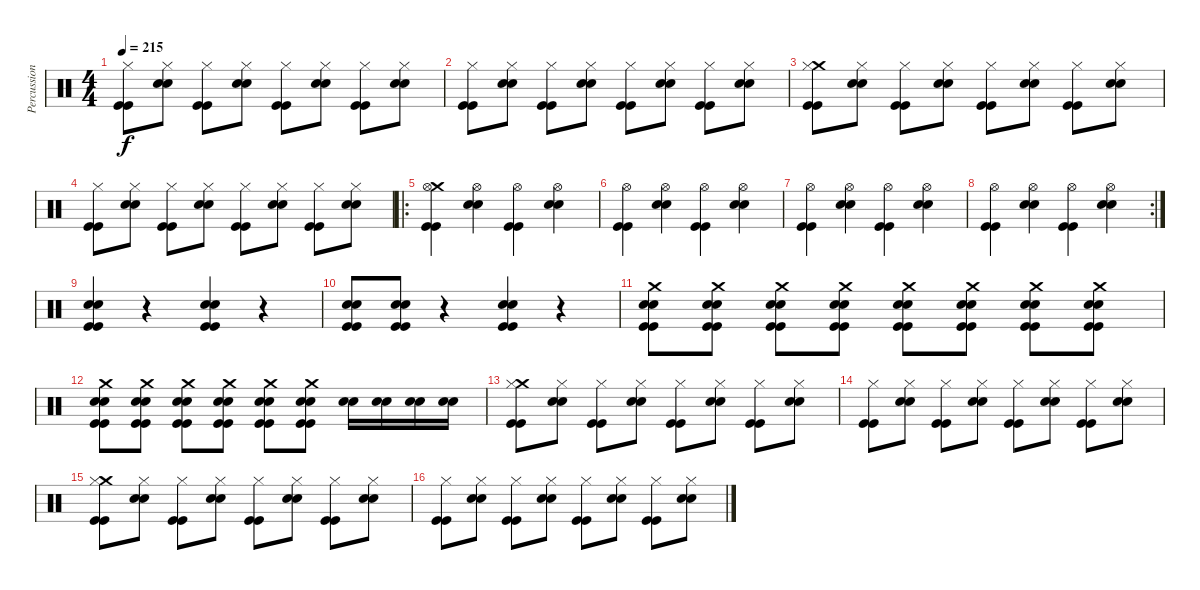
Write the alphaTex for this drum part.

\track ("Percussion" "Percussion") {instrument percussion}
\staff {score}
\articulation defaults
\ts (4 4)
\tempo 215
\clef neutral
\ks c
("Kick (hit)" "Kick (hit)" "Hi-Hat (closed)").8{dy f} ("Snare (hit) 2" "Snare (hit) 2" "Hi-Hat (closed)").8 ("Kick (hit)" "Kick (hit)" "Hi-Hat (closed)").8 ("Snare (hit) 2" "Snare (hit) 2" "Hi-Hat (closed)").8 ("Kick (hit)" "Kick (hit)" "Hi-Hat (closed)").8 ("Snare (hit) 2" "Snare (hit) 2" "Hi-Hat (closed)").8 ("Kick (hit)" "Kick (hit)" "Hi-Hat (closed)").8 ("Snare (hit) 2" "Snare (hit) 2" "Hi-Hat (closed)").8 |
("Kick (hit)" "Kick (hit)" "Hi-Hat (closed)").8 ("Snare (hit) 2" "Snare (hit) 2" "Hi-Hat (closed)").8 ("Kick (hit)" "Kick (hit)" "Hi-Hat (closed)").8 ("Snare (hit) 2" "Snare (hit) 2" "Hi-Hat (closed)").8 ("Kick (hit)" "Kick (hit)" "Hi-Hat (closed)").8 ("Snare (hit) 2" "Snare (hit) 2" "Hi-Hat (closed)").8 ("Kick (hit)" "Kick (hit)" "Hi-Hat (closed)").8 ("Snare (hit) 2" "Snare (hit) 2" "Hi-Hat (closed)").8 |
("Crash medium (hit)" "Kick (hit)" "Kick (hit)" "Hi-Hat (closed)").8 ("Snare (hit) 2" "Snare (hit) 2" "Hi-Hat (closed)").8 ("Kick (hit)" "Kick (hit)" "Hi-Hat (closed)").8 ("Snare (hit) 2" "Snare (hit) 2" "Hi-Hat (closed)").8 ("Kick (hit)" "Kick (hit)" "Hi-Hat (closed)").8 ("Snare (hit) 2" "Snare (hit) 2" "Hi-Hat (closed)").8 ("Kick (hit)" "Kick (hit)" "Hi-Hat (closed)").8 ("Snare (hit) 2" "Snare (hit) 2" "Hi-Hat (closed)").8 |
("Kick (hit)" "Kick (hit)" "Hi-Hat (closed)").8 ("Snare (hit) 2" "Snare (hit) 2" "Hi-Hat (closed)").8 ("Kick (hit)" "Kick (hit)" "Hi-Hat (closed)").8 ("Snare (hit) 2" "Snare (hit) 2" "Hi-Hat (closed)").8 ("Kick (hit)" "Kick (hit)" "Hi-Hat (closed)").8 ("Snare (hit) 2" "Snare (hit) 2" "Hi-Hat (closed)").8 ("Kick (hit)" "Kick (hit)" "Hi-Hat (closed)").8 ("Snare (hit) 2" "Snare (hit) 2" "Hi-Hat (closed)").8 |
\ro
("Crash medium (hit)" "Hi-Hat (open)" "Kick (hit)" "Kick (hit)").4 ("Hi-Hat (open)" "Snare (hit) 2" "Snare (hit) 2").4 ("Hi-Hat (open)" "Kick (hit)" "Kick (hit)").4 ("Hi-Hat (open)" "Snare (hit) 2" "Snare (hit) 2").4 |
("Hi-Hat (open)" "Kick (hit)" "Kick (hit)").4 ("Hi-Hat (open)" "Snare (hit) 2" "Snare (hit) 2").4 ("Hi-Hat (open)" "Kick (hit)" "Kick (hit)").4 ("Hi-Hat (open)" "Snare (hit) 2" "Snare (hit) 2").4 |
("Hi-Hat (open)" "Kick (hit)" "Kick (hit)").4 ("Hi-Hat (open)" "Snare (hit) 2" "Snare (hit) 2").4 ("Hi-Hat (open)" "Kick (hit)" "Kick (hit)").4 ("Hi-Hat (open)" "Snare (hit) 2" "Snare (hit) 2").4 |
\rc 2
("Hi-Hat (open)" "Kick (hit)" "Kick (hit)").4 ("Hi-Hat (open)" "Snare (hit) 2" "Snare (hit) 2").4 ("Hi-Hat (open)" "Kick (hit)" "Kick (hit)").4 ("Hi-Hat (open)" "Snare (hit) 2" "Snare (hit) 2").4 |
("Snare (hit) 2" "Snare (hit) 2" "Kick (hit)" "Kick (hit)").4 r.4 ("Snare (hit) 2" "Snare (hit) 2" "Kick (hit)" "Kick (hit)").4 r.4 |
("Snare (hit) 2" "Snare (hit) 2" "Kick (hit)" "Kick (hit)").8 ("Snare (hit) 2" "Snare (hit) 2" "Kick (hit)" "Kick (hit)").8 r.4 ("Snare (hit) 2" "Snare (hit) 2" "Kick (hit)" "Kick (hit)").4 r.4 |
("Snare (hit) 2" "Snare (hit) 2" "Kick (hit)" "Kick (hit)" "Crash medium (hit)").8 ("Snare (hit) 2" "Snare (hit) 2" "Kick (hit)" "Kick (hit)" "Crash medium (hit)").8 ("Snare (hit) 2" "Snare (hit) 2" "Kick (hit)" "Kick (hit)" "Crash medium (hit)").8 ("Snare (hit) 2" "Snare (hit) 2" "Kick (hit)" "Kick (hit)" "Crash medium (hit)").8 ("Snare (hit) 2" "Snare (hit) 2" "Kick (hit)" "Kick (hit)" "Crash medium (hit)").8 ("Snare (hit) 2" "Snare (hit) 2" "Kick (hit)" "Kick (hit)" "Crash medium (hit)").8 ("Snare (hit) 2" "Snare (hit) 2" "Kick (hit)" "Kick (hit)" "Crash medium (hit)").8 ("Snare (hit) 2" "Snare (hit) 2" "Kick (hit)" "Kick (hit)" "Crash medium (hit)").8 |
("Snare (hit) 2" "Snare (hit) 2" "Kick (hit)" "Kick (hit)" "Crash medium (hit)").8 ("Snare (hit) 2" "Snare (hit) 2" "Kick (hit)" "Kick (hit)" "Crash medium (hit)").8 ("Snare (hit) 2" "Snare (hit) 2" "Kick (hit)" "Kick (hit)" "Crash medium (hit)").8 ("Snare (hit) 2" "Snare (hit) 2" "Kick (hit)" "Kick (hit)" "Crash medium (hit)").8 ("Snare (hit) 2" "Snare (hit) 2" "Kick (hit)" "Kick (hit)" "Crash medium (hit)").8 ("Snare (hit) 2" "Snare (hit) 2" "Kick (hit)" "Kick (hit)" "Crash medium (hit)").8 ("Snare (hit) 2" "Snare (hit) 2").16 ("Snare (hit) 2" "Snare (hit) 2").16 ("Snare (hit) 2" "Snare (hit) 2").16 ("Snare (hit) 2" "Snare (hit) 2").16 |
("Crash medium (hit)" "Kick (hit)" "Kick (hit)" "Hi-Hat (closed)").8 ("Snare (hit) 2" "Snare (hit) 2" "Hi-Hat (closed)").8 ("Kick (hit)" "Kick (hit)" "Hi-Hat (closed)").8 ("Snare (hit) 2" "Snare (hit) 2" "Hi-Hat (closed)").8 ("Kick (hit)" "Kick (hit)" "Hi-Hat (closed)").8 ("Snare (hit) 2" "Snare (hit) 2" "Hi-Hat (closed)").8 ("Kick (hit)" "Kick (hit)" "Hi-Hat (closed)").8 ("Snare (hit) 2" "Snare (hit) 2" "Hi-Hat (closed)").8 |
("Kick (hit)" "Kick (hit)" "Hi-Hat (closed)").8 ("Snare (hit) 2" "Snare (hit) 2" "Hi-Hat (closed)").8 ("Kick (hit)" "Kick (hit)" "Hi-Hat (closed)").8 ("Snare (hit) 2" "Snare (hit) 2" "Hi-Hat (closed)").8 ("Kick (hit)" "Kick (hit)" "Hi-Hat (closed)").8 ("Snare (hit) 2" "Snare (hit) 2" "Hi-Hat (closed)").8 ("Kick (hit)" "Kick (hit)" "Hi-Hat (closed)").8 ("Snare (hit) 2" "Snare (hit) 2" "Hi-Hat (closed)").8 |
("Crash medium (hit)" "Kick (hit)" "Kick (hit)" "Hi-Hat (closed)").8 ("Snare (hit) 2" "Snare (hit) 2" "Hi-Hat (closed)").8 ("Kick (hit)" "Kick (hit)" "Hi-Hat (closed)").8 ("Snare (hit) 2" "Snare (hit) 2" "Hi-Hat (closed)").8 ("Kick (hit)" "Kick (hit)" "Hi-Hat (closed)").8 ("Snare (hit) 2" "Snare (hit) 2" "Hi-Hat (closed)").8 ("Kick (hit)" "Kick (hit)" "Hi-Hat (closed)").8 ("Snare (hit) 2" "Snare (hit) 2" "Hi-Hat (closed)").8 |
("Kick (hit)" "Kick (hit)" "Hi-Hat (closed)").8 ("Snare (hit) 2" "Snare (hit) 2" "Hi-Hat (closed)").8 ("Kick (hit)" "Kick (hit)" "Hi-Hat (closed)").8 ("Snare (hit) 2" "Snare (hit) 2" "Hi-Hat (closed)").8 ("Kick (hit)" "Kick (hit)" "Hi-Hat (closed)").8 ("Snare (hit) 2" "Snare (hit) 2" "Hi-Hat (closed)").8 ("Kick (hit)" "Kick (hit)" "Hi-Hat (closed)").8 ("Snare (hit) 2" "Snare (hit) 2" "Hi-Hat (closed)").8
